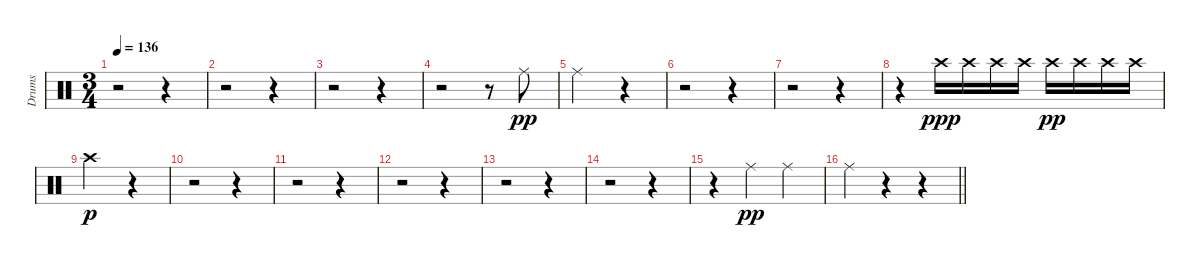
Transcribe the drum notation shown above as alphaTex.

\track ("Drums" "Drums") {instrument percussion}
\staff {score}
\articulation defaults
\ts (3 4)
\tempo 136
\clef neutral
\ks c
r.2{dy pp} r.4 |
r.2 r.4 |
r.2 r.4 |
r.2 r.8 "Ride (middle)".8 |
"Ride (middle)".2 r.4 |
r.2 r.4 |
r.2 r.4 |
r.4 "Crash high (hit)".16{dy ppp} "Crash high (hit)".16 "Crash high (hit)".16 "Crash high (hit)".16 "Crash high (hit)".16{dy pp} "Crash high (hit)".16 "Crash high (hit)".16 "Crash high (hit)".16 |
"Crash high (hit)".2{dy p} r.4 |
r.2 r.4 |
r.2 r.4 |
r.2 r.4 |
r.2 r.4 |
r.2 r.4 |
r.4 "Ride (middle)".4{dy pp} "Ride (middle)".4 |
\barLineRight lightlight "Ride (middle)".4
r.4 r.4
